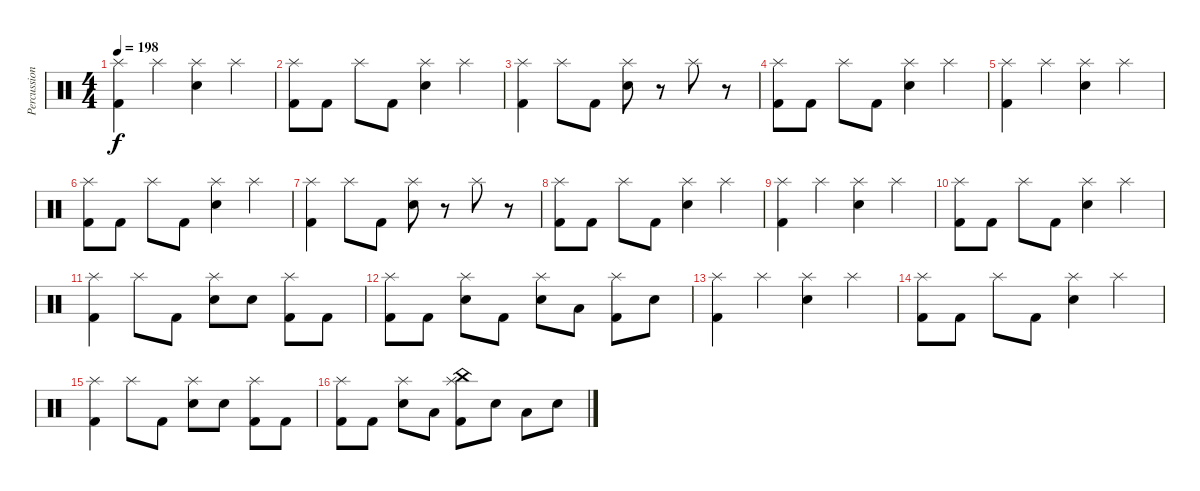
\track ("Percussion" "Percussion") {instrument percussion}
\staff {score}
\articulation defaults
\ts (4 4)
\tempo 198
\clef neutral
\ks c
("Splash (hit)" "Kick (hit) 2").4{dy f} "Splash (hit)".4 ("Splash (hit)" "Electric Snare (hit)").4 "Splash (hit)".4 |
("Splash (hit)" "Kick (hit) 2").8 "Kick (hit) 2".8 "Splash (hit)".8 "Kick (hit) 2".8 ("Splash (hit)" "Electric Snare (hit)").4 "Splash (hit)".4 |
("Splash (hit)" "Kick (hit) 2").4 "Splash (hit)".8 "Kick (hit) 2".8 ("Splash (hit)" "Electric Snare (hit)").8 r.8 "Splash (hit)".8 r.8 |
("Splash (hit)" "Kick (hit) 2").8 "Kick (hit) 2".8 "Splash (hit)".8 "Kick (hit) 2".8 ("Splash (hit)" "Electric Snare (hit)").4 "Splash (hit)".4 |
("Splash (hit)" "Kick (hit) 2").4 "Splash (hit)".4 ("Splash (hit)" "Electric Snare (hit)").4 "Splash (hit)".4 |
("Splash (hit)" "Kick (hit) 2").8 "Kick (hit) 2".8 "Splash (hit)".8 "Kick (hit) 2".8 ("Splash (hit)" "Electric Snare (hit)").4 "Splash (hit)".4 |
("Splash (hit)" "Kick (hit) 2").4 "Splash (hit)".8 "Kick (hit) 2".8 ("Splash (hit)" "Electric Snare (hit)").8 r.8 "Splash (hit)".8 r.8 |
("Splash (hit)" "Kick (hit) 2").8 "Kick (hit) 2".8 "Splash (hit)".8 "Kick (hit) 2".8 ("Splash (hit)" "Electric Snare (hit)").4 "Splash (hit)".4 |
("Splash (hit)" "Kick (hit) 2").4 "Splash (hit)".4 ("Splash (hit)" "Electric Snare (hit)").4 "Splash (hit)".4 |
("Splash (hit)" "Kick (hit) 2").8 "Kick (hit) 2".8 "Splash (hit)".8 "Kick (hit) 2".8 ("Splash (hit)" "Electric Snare (hit)").4 "Splash (hit)".4 |
("Splash (hit)" "Kick (hit) 2").4 "Splash (hit)".8 "Kick (hit) 2".8 ("Splash (hit)" "Electric Snare (hit)").8 "Electric Snare (hit)".8 ("Splash (hit)" "Kick (hit) 2").8 "Kick (hit) 2".8 |
("Splash (hit)" "Kick (hit) 2").8 "Kick (hit) 2".8 ("Splash (hit)" "Electric Snare (hit)").8 "Kick (hit) 2".8 ("Splash (hit)" "Electric Snare (hit)").8 "Low Tom (hit)".8 ("Splash (hit)" "Kick (hit) 2").8 "Electric Snare (hit)".8 |
("Splash (hit)" "Kick (hit) 2").4 "Splash (hit)".4 ("Splash (hit)" "Electric Snare (hit)").4 "Splash (hit)".4 |
("Splash (hit)" "Kick (hit) 2").8 "Kick (hit) 2".8 "Splash (hit)".8 "Kick (hit) 2".8 ("Splash (hit)" "Electric Snare (hit)").4 "Splash (hit)".4 |
("Splash (hit)" "Kick (hit) 2").4 "Splash (hit)".8 "Kick (hit) 2".8 ("Splash (hit)" "Electric Snare (hit)").8 "Electric Snare (hit)".8 ("Splash (hit)" "Kick (hit) 2").8 "Kick (hit) 2".8 |
("Splash (hit)" "Kick (hit) 2").8 "Kick (hit) 2".8 ("Splash (hit)" "Electric Snare (hit)").8 "Low Tom (hit)".8 ("China (hit)" "Splash (hit)" "Kick (hit) 2").8 "Electric Snare (hit)".8 "Low Tom (hit)".8 "Electric Snare (hit)".8
